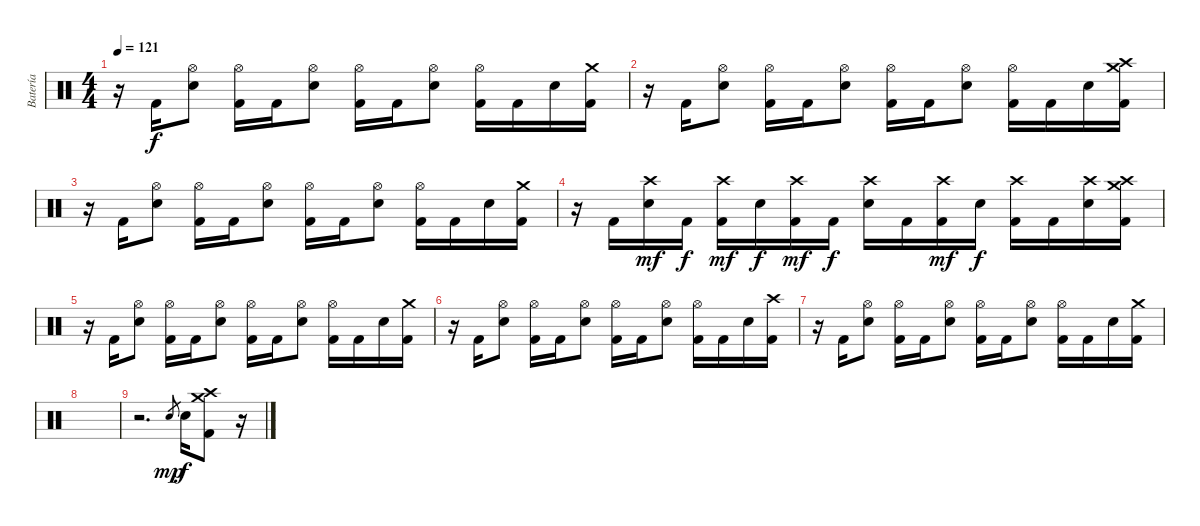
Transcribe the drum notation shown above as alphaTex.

\track ("Batería" "Batería") {instrument percussion}
\staff {score}
\articulation defaults
\ts (4 4)
\tempo 121
\clef neutral
\ks c
r.16{dy f} "Kick (hit) 2".16 ("Hi-Hat (open)" "Electric Snare (hit)").8 ("Hi-Hat (open)" "Kick (hit) 2").16 "Kick (hit) 2".16 ("Hi-Hat (open)" "Electric Snare (hit)").8 ("Hi-Hat (open)" "Kick (hit) 2").16 "Kick (hit) 2".16 ("Hi-Hat (open)" "Electric Snare (hit)").8 ("Hi-Hat (open)" "Kick (hit) 2").16 "Kick (hit) 2".16 "Electric Snare (hit)".16 ("Crash medium (hit)" "Kick (hit) 2").16 |
r.16 "Kick (hit) 2".16 ("Hi-Hat (open)" "Electric Snare (hit)").8 ("Hi-Hat (open)" "Kick (hit) 2").16 "Kick (hit) 2".16 ("Hi-Hat (open)" "Electric Snare (hit)").8 ("Hi-Hat (open)" "Kick (hit) 2").16 "Kick (hit) 2".16 ("Hi-Hat (open)" "Electric Snare (hit)").8 ("Hi-Hat (open)" "Kick (hit) 2").16 "Kick (hit) 2".16 "Electric Snare (hit)".16 ("Crash medium (hit)" "Crash high (hit)" "Kick (hit) 2").16 |
r.16 "Kick (hit) 2".16 ("Hi-Hat (open)" "Electric Snare (hit)").8 ("Hi-Hat (open)" "Kick (hit) 2").16 "Kick (hit) 2".16 ("Hi-Hat (open)" "Electric Snare (hit)").8 ("Hi-Hat (open)" "Kick (hit) 2").16 "Kick (hit) 2".16 ("Hi-Hat (open)" "Electric Snare (hit)").8 ("Hi-Hat (open)" "Kick (hit) 2").16 "Kick (hit) 2".16 "Electric Snare (hit)".16 ("Crash medium (hit)" "Kick (hit) 2").16 |
r.16 "Kick (hit) 2".16 ("Crash high (hit)" "Electric Snare (hit)").16{dy mf} "Kick (hit) 2".16{dy f} ("Crash high (hit)" "Kick (hit) 2").16{dy mf} "Electric Snare (hit)".16{dy f} ("Crash high (hit)" "Kick (hit) 2").16{dy mf} "Kick (hit) 2".16{dy f} ("Crash high (hit)" "Electric Snare (hit)").16 "Kick (hit) 2".16 ("Crash high (hit)" "Kick (hit) 2").16{dy mf} "Electric Snare (hit)".16{dy f} ("Crash high (hit)" "Kick (hit) 2").16 "Kick (hit) 2".16 ("Crash high (hit)" "Electric Snare (hit)").16 ("Crash medium (hit)" "Crash high (hit)" "Kick (hit) 2").16 |
r.16 "Kick (hit) 2".16 ("Hi-Hat (open)" "Electric Snare (hit)").8 ("Hi-Hat (open)" "Kick (hit) 2").16 "Kick (hit) 2".16 ("Hi-Hat (open)" "Electric Snare (hit)").8 ("Hi-Hat (open)" "Kick (hit) 2").16 "Kick (hit) 2".16 ("Hi-Hat (open)" "Electric Snare (hit)").8 ("Hi-Hat (open)" "Kick (hit) 2").16 "Kick (hit) 2".16 "Electric Snare (hit)".16 ("Crash medium (hit)" "Kick (hit) 2").16 |
r.16 "Kick (hit) 2".16 ("Hi-Hat (open)" "Electric Snare (hit)").8 ("Hi-Hat (open)" "Kick (hit) 2").16 "Kick (hit) 2".16 ("Hi-Hat (open)" "Electric Snare (hit)").8 ("Hi-Hat (open)" "Kick (hit) 2").16 "Kick (hit) 2".16 ("Hi-Hat (open)" "Electric Snare (hit)").8 ("Hi-Hat (open)" "Kick (hit) 2").16 "Kick (hit) 2".16 "Electric Snare (hit)".16 ("Crash high (hit)" "Kick (hit) 2").16 |
r.16 "Kick (hit) 2".16 ("Hi-Hat (open)" "Electric Snare (hit)").8 ("Hi-Hat (open)" "Kick (hit) 2").16 "Kick (hit) 2".16 ("Hi-Hat (open)" "Electric Snare (hit)").8 ("Hi-Hat (open)" "Kick (hit) 2").16 "Kick (hit) 2".16 ("Hi-Hat (open)" "Electric Snare (hit)").8 ("Hi-Hat (open)" "Kick (hit) 2").16 "Kick (hit) 2".16 "Electric Snare (hit)".16 ("Crash medium (hit)" "Kick (hit) 2").16 |
|
r.2{d} "Electric Snare (hit)".8{gr dy mp} "Electric Snare (hit)".16{dy f} ("Crash medium (hit)" "Crash high (hit)" "Kick (hit) 2").8 r.16
